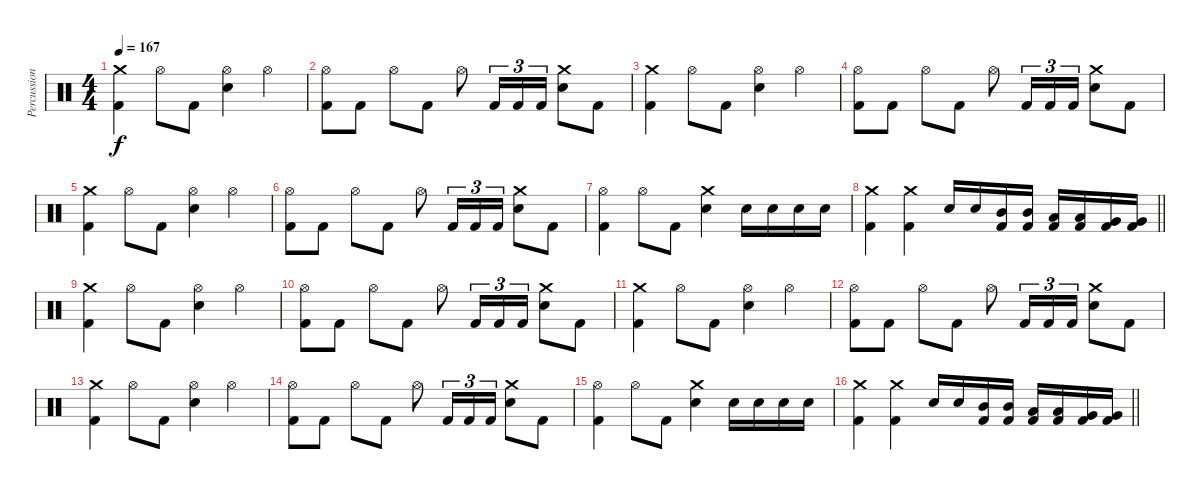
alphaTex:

\track ("Percussion" "Percussion") {instrument percussion}
\staff {score}
\articulation defaults
\ts (4 4)
\tempo 167
\clef neutral
\ks c
("Crash medium (hit)" "Kick (hit) 2").4{dy f} "Hi-Hat (open)".8 "Kick (hit) 2".8 ("Snare (hit) 2" "Hi-Hat (open)").4 "Hi-Hat (open)".4 |
("Hi-Hat (open)" "Kick (hit) 2").8 "Kick (hit) 2".8 "Hi-Hat (open)".8 "Kick (hit) 2".8 "Hi-Hat (open)".8 "Kick (hit) 2".16{tu (3 2)} "Kick (hit) 2".16{tu (3 2)} "Kick (hit) 2".16{tu (3 2)} ("Snare (hit) 2" "Crash medium (hit)").8 "Kick (hit) 2".8 |
("Crash medium (hit)" "Kick (hit) 2").4 "Hi-Hat (open)".8 "Kick (hit) 2".8 ("Snare (hit) 2" "Hi-Hat (open)").4 "Hi-Hat (open)".4 |
("Hi-Hat (open)" "Kick (hit) 2").8 "Kick (hit) 2".8 "Hi-Hat (open)".8 "Kick (hit) 2".8 "Hi-Hat (open)".8 "Kick (hit) 2".16{tu (3 2)} "Kick (hit) 2".16{tu (3 2)} "Kick (hit) 2".16{tu (3 2)} ("Crash medium (hit)" "Snare (hit) 2").8 "Kick (hit) 2".8 |
("Crash medium (hit)" "Kick (hit) 2").4 "Hi-Hat (open)".8 "Kick (hit) 2".8 ("Hi-Hat (open)" "Snare (hit) 2").4 "Hi-Hat (open)".4 |
("Hi-Hat (open)" "Kick (hit) 2").8 "Kick (hit) 2".8 "Hi-Hat (open)".8 "Kick (hit) 2".8 "Hi-Hat (open)".8 "Kick (hit) 2".16{tu (3 2)} "Kick (hit) 2".16{tu (3 2)} "Kick (hit) 2".16{tu (3 2)} ("Crash medium (hit)" "Snare (hit) 2").8 "Kick (hit) 2".8 |
("Hi-Hat (open)" "Kick (hit) 2").4 "Hi-Hat (open)".8 "Kick (hit) 2".8 ("Crash medium (hit)" "Snare (hit) 2").4 "Snare (hit) 2".16 "Snare (hit) 2".16 "Snare (hit) 2".16 "Snare (hit) 2".16 |
\barLineRight lightlight
("Crash medium (hit)" "Kick (hit) 2").4 ("Crash medium (hit)" "Kick (hit) 2").4 "Snare (hit) 2".16 "Snare (hit) 2".16 ("Mid Tom (hit)" "Kick (hit) 2").16 ("Mid Tom (hit)" "Kick (hit) 2").16 ("Low Tom (hit)" "Kick (hit) 2").16 ("Low Tom (hit)" "Kick (hit) 2").16 ("Very Low Tom (hit)" "Kick (hit) 2").16 ("Very Low Tom (hit)" "Kick (hit) 2").16 |
("Crash medium (hit)" "Kick (hit) 2").4 "Hi-Hat (open)".8 "Kick (hit) 2".8 ("Snare (hit) 2" "Hi-Hat (open)").4 "Hi-Hat (open)".4 |
("Hi-Hat (open)" "Kick (hit) 2").8 "Kick (hit) 2".8 "Hi-Hat (open)".8 "Kick (hit) 2".8 "Hi-Hat (open)".8 "Kick (hit) 2".16{tu (3 2)} "Kick (hit) 2".16{tu (3 2)} "Kick (hit) 2".16{tu (3 2)} ("Snare (hit) 2" "Crash medium (hit)").8 "Kick (hit) 2".8 |
("Crash medium (hit)" "Kick (hit) 2").4 "Hi-Hat (open)".8 "Kick (hit) 2".8 ("Snare (hit) 2" "Hi-Hat (open)").4 "Hi-Hat (open)".4 |
("Hi-Hat (open)" "Kick (hit) 2").8 "Kick (hit) 2".8 "Hi-Hat (open)".8 "Kick (hit) 2".8 "Hi-Hat (open)".8 "Kick (hit) 2".16{tu (3 2)} "Kick (hit) 2".16{tu (3 2)} "Kick (hit) 2".16{tu (3 2)} ("Crash medium (hit)" "Snare (hit) 2").8 "Kick (hit) 2".8 |
("Crash medium (hit)" "Kick (hit) 2").4 "Hi-Hat (open)".8 "Kick (hit) 2".8 ("Hi-Hat (open)" "Snare (hit) 2").4 "Hi-Hat (open)".4 |
("Hi-Hat (open)" "Kick (hit) 2").8 "Kick (hit) 2".8 "Hi-Hat (open)".8 "Kick (hit) 2".8 "Hi-Hat (open)".8 "Kick (hit) 2".16{tu (3 2)} "Kick (hit) 2".16{tu (3 2)} "Kick (hit) 2".16{tu (3 2)} ("Crash medium (hit)" "Snare (hit) 2").8 "Kick (hit) 2".8 |
("Hi-Hat (open)" "Kick (hit) 2").4 "Hi-Hat (open)".8 "Kick (hit) 2".8 ("Crash medium (hit)" "Snare (hit) 2").4 "Snare (hit) 2".16 "Snare (hit) 2".16 "Snare (hit) 2".16 "Snare (hit) 2".16 |
\barLineRight lightlight
("Crash medium (hit)" "Kick (hit) 2").4 ("Crash medium (hit)" "Kick (hit) 2").4 "Snare (hit) 2".16 "Snare (hit) 2".16 ("Mid Tom (hit)" "Kick (hit) 2").16 ("Mid Tom (hit)" "Kick (hit) 2").16 ("Low Tom (hit)" "Kick (hit) 2").16 ("Low Tom (hit)" "Kick (hit) 2").16 ("Very Low Tom (hit)" "Kick (hit) 2").16 ("Very Low Tom (hit)" "Kick (hit) 2").16
